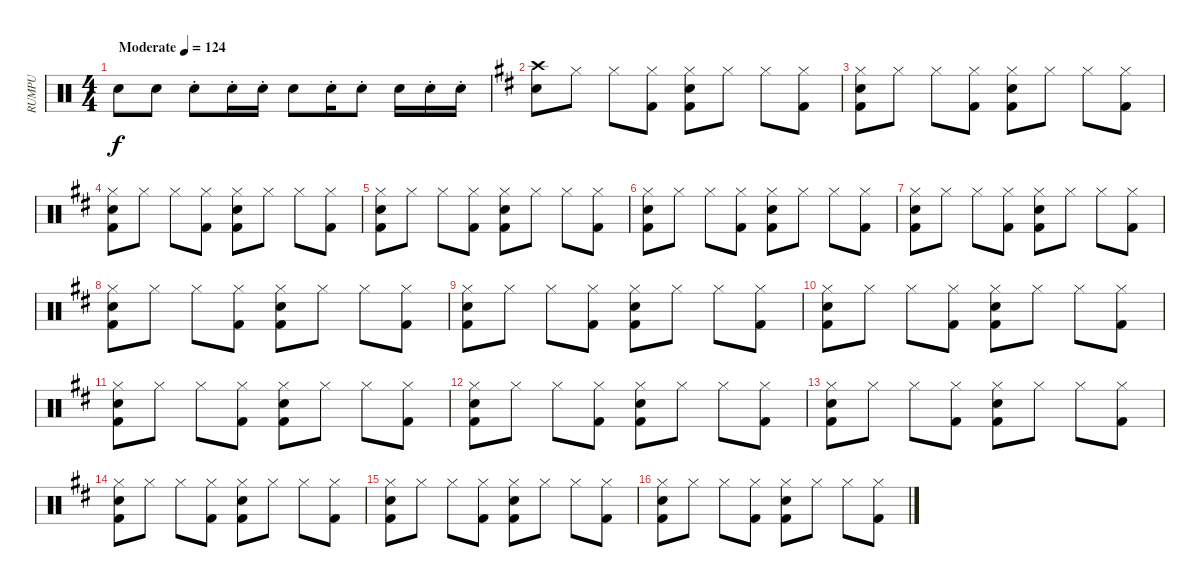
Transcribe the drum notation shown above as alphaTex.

\track ("RUMPU" "RUMPU") {instrument percussion}
\staff {score}
\articulation defaults
\ts (4 4)
\tempo (124 "Moderate")
\clef neutral
\ks c "Electric Snare (hit)".8{dy f} "Electric Snare (hit)".8 "Electric Snare (hit)"{st}.8 "Electric Snare (hit)"{st}.16 "Electric Snare (hit)"{st}.16 "Electric Snare (hit)".8 "Electric Snare (hit)"{st}.16 "Electric Snare (hit)"{st}.8 "Electric Snare (hit)".16 "Electric Snare (hit)"{st}.16 "Electric Snare (hit)"{st}.16
|
\ks d
("Crash high (hit)" "Electric Snare (hit)").8 "Hi-Hat (closed)".8 "Hi-Hat (closed)".8 ("Hi-Hat (closed)" "Kick (hit) 2").8 ("Hi-Hat (closed)" "Kick (hit) 2" "Electric Snare (hit)").8 "Hi-Hat (closed)".8 "Hi-Hat (closed)".8 ("Hi-Hat (closed)" "Kick (hit) 2").8 |
("Hi-Hat (closed)" "Kick (hit) 2" "Electric Snare (hit)").8 "Hi-Hat (closed)".8 "Hi-Hat (closed)".8 ("Hi-Hat (closed)" "Kick (hit) 2").8 ("Hi-Hat (closed)" "Kick (hit) 2" "Electric Snare (hit)").8 "Hi-Hat (closed)".8 "Hi-Hat (closed)".8 ("Hi-Hat (closed)" "Kick (hit) 2").8 |
("Hi-Hat (closed)" "Kick (hit) 2" "Electric Snare (hit)").8 "Hi-Hat (closed)".8 "Hi-Hat (closed)".8 ("Hi-Hat (closed)" "Kick (hit) 2").8 ("Hi-Hat (closed)" "Kick (hit) 2" "Electric Snare (hit)").8 "Hi-Hat (closed)".8 "Hi-Hat (closed)".8 ("Hi-Hat (closed)" "Kick (hit) 2").8 |
("Hi-Hat (closed)" "Kick (hit) 2" "Electric Snare (hit)").8 "Hi-Hat (closed)".8 "Hi-Hat (closed)".8 ("Hi-Hat (closed)" "Kick (hit) 2").8 ("Hi-Hat (closed)" "Kick (hit) 2" "Electric Snare (hit)").8 "Hi-Hat (closed)".8 "Hi-Hat (closed)".8 ("Hi-Hat (closed)" "Kick (hit) 2").8 |
("Hi-Hat (closed)" "Kick (hit) 2" "Electric Snare (hit)").8 "Hi-Hat (closed)".8 "Hi-Hat (closed)".8 ("Hi-Hat (closed)" "Kick (hit) 2").8 ("Hi-Hat (closed)" "Kick (hit) 2" "Electric Snare (hit)").8 "Hi-Hat (closed)".8 "Hi-Hat (closed)".8 ("Hi-Hat (closed)" "Kick (hit) 2").8 |
("Hi-Hat (closed)" "Kick (hit) 2" "Electric Snare (hit)").8 "Hi-Hat (closed)".8 "Hi-Hat (closed)".8 ("Hi-Hat (closed)" "Kick (hit) 2").8 ("Hi-Hat (closed)" "Kick (hit) 2" "Electric Snare (hit)").8 "Hi-Hat (closed)".8 "Hi-Hat (closed)".8 ("Hi-Hat (closed)" "Kick (hit) 2").8 |
("Hi-Hat (closed)" "Kick (hit) 2" "Electric Snare (hit)").8 "Hi-Hat (closed)".8 "Hi-Hat (closed)".8 ("Hi-Hat (closed)" "Kick (hit) 2").8 ("Hi-Hat (closed)" "Kick (hit) 2" "Electric Snare (hit)").8 "Hi-Hat (closed)".8 "Hi-Hat (closed)".8 ("Hi-Hat (closed)" "Kick (hit) 2").8 |
("Hi-Hat (closed)" "Kick (hit) 2" "Electric Snare (hit)").8 "Hi-Hat (closed)".8 "Hi-Hat (closed)".8 ("Hi-Hat (closed)" "Kick (hit) 2").8 ("Hi-Hat (closed)" "Kick (hit) 2" "Electric Snare (hit)").8 "Hi-Hat (closed)".8 "Hi-Hat (closed)".8 ("Hi-Hat (closed)" "Kick (hit) 2").8 |
("Hi-Hat (closed)" "Kick (hit) 2" "Electric Snare (hit)").8 "Hi-Hat (closed)".8 "Hi-Hat (closed)".8 ("Hi-Hat (closed)" "Kick (hit) 2").8 ("Hi-Hat (closed)" "Kick (hit) 2" "Electric Snare (hit)").8 "Hi-Hat (closed)".8 "Hi-Hat (closed)".8 ("Hi-Hat (closed)" "Kick (hit) 2").8 |
("Hi-Hat (closed)" "Kick (hit) 2" "Electric Snare (hit)").8 "Hi-Hat (closed)".8 "Hi-Hat (closed)".8 ("Hi-Hat (closed)" "Kick (hit) 2").8 ("Hi-Hat (closed)" "Kick (hit) 2" "Electric Snare (hit)").8 "Hi-Hat (closed)".8 "Hi-Hat (closed)".8 ("Hi-Hat (closed)" "Kick (hit) 2").8 |
("Hi-Hat (closed)" "Kick (hit) 2" "Electric Snare (hit)").8 "Hi-Hat (closed)".8 "Hi-Hat (closed)".8 ("Hi-Hat (closed)" "Kick (hit) 2").8 ("Hi-Hat (closed)" "Kick (hit) 2" "Electric Snare (hit)").8 "Hi-Hat (closed)".8 "Hi-Hat (closed)".8 ("Hi-Hat (closed)" "Kick (hit) 2").8 |
("Hi-Hat (closed)" "Kick (hit) 2" "Electric Snare (hit)").8 "Hi-Hat (closed)".8 "Hi-Hat (closed)".8 ("Hi-Hat (closed)" "Kick (hit) 2").8 ("Hi-Hat (closed)" "Kick (hit) 2" "Electric Snare (hit)").8 "Hi-Hat (closed)".8 "Hi-Hat (closed)".8 ("Hi-Hat (closed)" "Kick (hit) 2").8 |
("Hi-Hat (closed)" "Kick (hit) 2" "Electric Snare (hit)").8 "Hi-Hat (closed)".8 "Hi-Hat (closed)".8 ("Hi-Hat (closed)" "Kick (hit) 2").8 ("Hi-Hat (closed)" "Kick (hit) 2" "Electric Snare (hit)").8 "Hi-Hat (closed)".8 "Hi-Hat (closed)".8 ("Hi-Hat (closed)" "Kick (hit) 2").8 |
("Hi-Hat (closed)" "Kick (hit) 2" "Electric Snare (hit)").8 "Hi-Hat (closed)".8 "Hi-Hat (closed)".8 ("Hi-Hat (closed)" "Kick (hit) 2").8 ("Hi-Hat (closed)" "Kick (hit) 2" "Electric Snare (hit)").8 "Hi-Hat (closed)".8 "Hi-Hat (closed)".8 ("Hi-Hat (closed)" "Kick (hit) 2").8 |
("Hi-Hat (closed)" "Kick (hit) 2" "Electric Snare (hit)").8 "Hi-Hat (closed)".8 "Hi-Hat (closed)".8 ("Hi-Hat (closed)" "Kick (hit) 2").8 ("Hi-Hat (closed)" "Kick (hit) 2" "Electric Snare (hit)").8 "Hi-Hat (closed)".8 "Hi-Hat (closed)".8 ("Hi-Hat (closed)" "Kick (hit) 2").8
